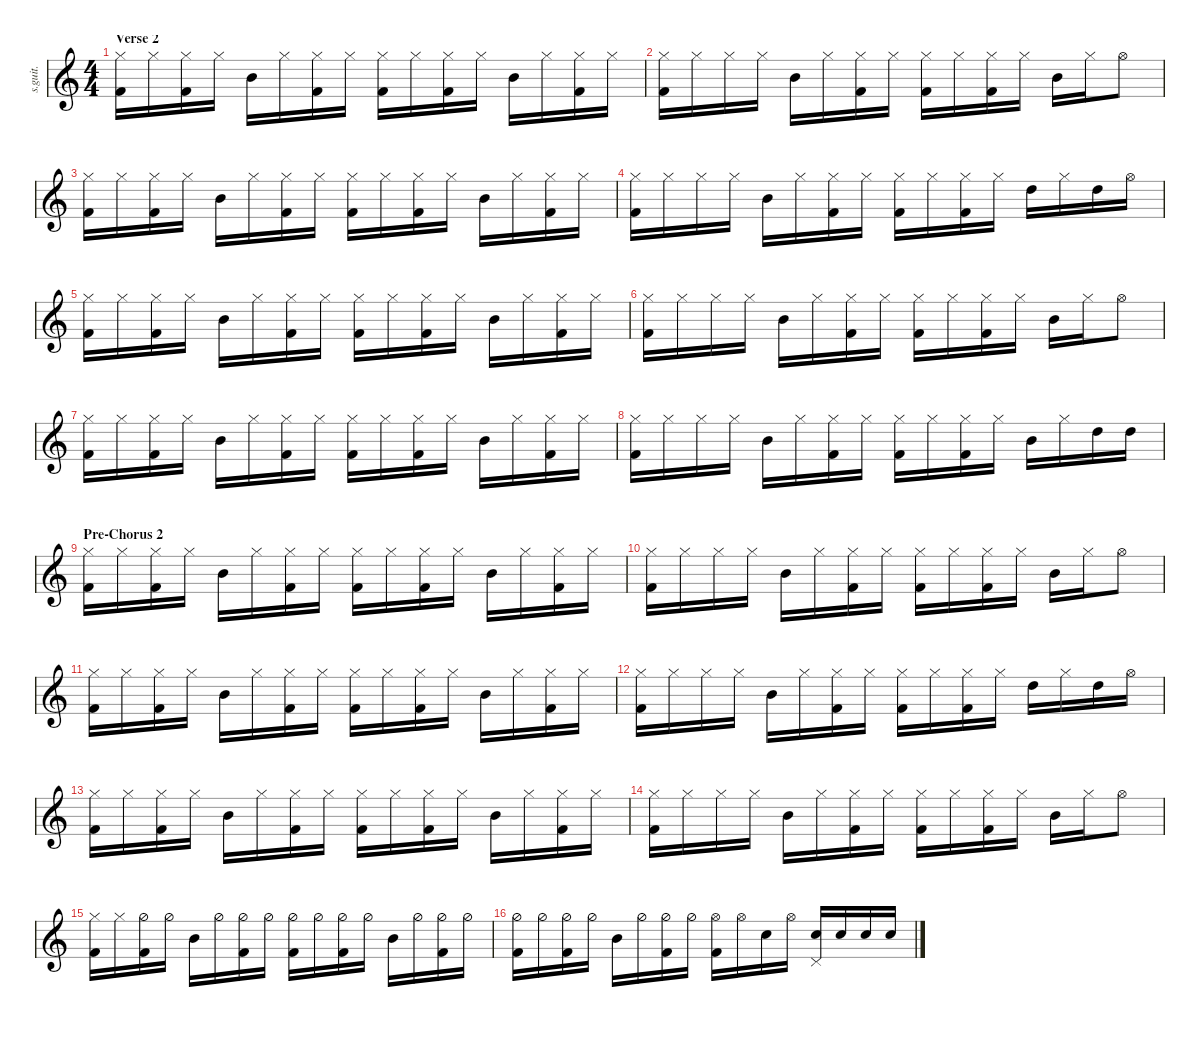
\defaultSystemsLayout 4
\hideDynamics
\bracketExtendMode nobrackets
\track ("Feargal Lawler (Drums)" "s.guit.") {instrument percussion}
\staff {score}
\articulation defaults
\ts (4 4)
\section ("" "Verse 2")
\tempo (82 hide)
\clef g2
\ks c
("Kick (hit) 2" "Hi-Hat (closed)").16{lyrics (0 "") lyrics (1 "") lyrics (2 "") lyrics (3 "") lyrics (4 "") dy ff} "Hi-Hat (closed)".16{lyrics (0 "") lyrics (1 "") lyrics (2 "") lyrics (3 "") lyrics (4 "")} ("Hi-Hat (closed)" "Kick (hit) 2").16{lyrics (0 "") lyrics (1 "") lyrics (2 "") lyrics (3 "") lyrics (4 "")} "Hi-Hat (closed)".16{lyrics (0 "") lyrics (1 "") lyrics (2 "") lyrics (3 "") lyrics (4 "")} "Mid Tom (hit)".16{lyrics (0 "") lyrics (1 "") lyrics (2 "") lyrics (3 "") lyrics (4 "")} "Hi-Hat (closed)".16{lyrics (0 "") lyrics (1 "") lyrics (2 "") lyrics (3 "") lyrics (4 "")} ("Hi-Hat (closed)" "Kick (hit) 2").16{lyrics (0 "") lyrics (1 "") lyrics (2 "") lyrics (3 "") lyrics (4 "")} "Hi-Hat (closed)".16{lyrics (0 "") lyrics (1 "") lyrics (2 "") lyrics (3 "") lyrics (4 "")} ("Hi-Hat (closed)" "Kick (hit) 2").16{lyrics (0 "") lyrics (1 "") lyrics (2 "") lyrics (3 "") lyrics (4 "")} "Hi-Hat (closed)".16{lyrics (0 "") lyrics (1 "") lyrics (2 "") lyrics (3 "") lyrics (4 "")} ("Hi-Hat (closed)" "Kick (hit) 2").16{lyrics (0 "") lyrics (1 "") lyrics (2 "") lyrics (3 "") lyrics (4 "")} "Hi-Hat (closed)".16{lyrics (0 "") lyrics (1 "") lyrics (2 "") lyrics (3 "") lyrics (4 "")} "Mid Tom (hit)".16{lyrics (0 "") lyrics (1 "") lyrics (2 "") lyrics (3 "") lyrics (4 "")} "Hi-Hat (closed)".16{lyrics (0 "") lyrics (1 "") lyrics (2 "") lyrics (3 "") lyrics (4 "")} ("Hi-Hat (closed)" "Kick (hit) 2").16{lyrics (0 "") lyrics (1 "") lyrics (2 "") lyrics (3 "") lyrics (4 "")} "Hi-Hat (closed)".16{lyrics (0 "") lyrics (1 "") lyrics (2 "") lyrics (3 "") lyrics (4 "")} |
("Hi-Hat (closed)" "Kick (hit) 2").16{lyrics (0 "") lyrics (1 "") lyrics (2 "") lyrics (3 "") lyrics (4 "")} "Hi-Hat (closed)".16{lyrics (0 "") lyrics (1 "") lyrics (2 "") lyrics (3 "") lyrics (4 "")} "Hi-Hat (closed)".16{lyrics (0 "") lyrics (1 "") lyrics (2 "") lyrics (3 "") lyrics (4 "")} "Hi-Hat (closed)".16{lyrics (0 "") lyrics (1 "") lyrics (2 "") lyrics (3 "") lyrics (4 "")} "Mid Tom (hit)".16{lyrics (0 "") lyrics (1 "") lyrics (2 "") lyrics (3 "") lyrics (4 "")} "Hi-Hat (closed)".16{lyrics (0 "") lyrics (1 "") lyrics (2 "") lyrics (3 "") lyrics (4 "")} ("Hi-Hat (closed)" "Kick (hit) 2").16{lyrics (0 "") lyrics (1 "") lyrics (2 "") lyrics (3 "") lyrics (4 "")} "Hi-Hat (closed)".16{lyrics (0 "") lyrics (1 "") lyrics (2 "") lyrics (3 "") lyrics (4 "")} ("Hi-Hat (closed)" "Kick (hit) 2").16{lyrics (0 "") lyrics (1 "") lyrics (2 "") lyrics (3 "") lyrics (4 "")} "Hi-Hat (closed)".16{lyrics (0 "") lyrics (1 "") lyrics (2 "") lyrics (3 "") lyrics (4 "")} ("Hi-Hat (closed)" "Kick (hit) 2").16{lyrics (0 "") lyrics (1 "") lyrics (2 "") lyrics (3 "") lyrics (4 "")} "Hi-Hat (closed)".16{lyrics (0 "") lyrics (1 "") lyrics (2 "") lyrics (3 "") lyrics (4 "")} "Mid Tom (hit)".16{lyrics (0 "") lyrics (1 "") lyrics (2 "") lyrics (3 "") lyrics (4 "")} "Hi-Hat (closed)".16{lyrics (0 "") lyrics (1 "") lyrics (2 "") lyrics (3 "") lyrics (4 "")} "Hi-Hat (open)".8{lyrics (0 "") lyrics (1 "") lyrics (2 "") lyrics (3 "") lyrics (4 "")} |
("Hi-Hat (closed)" "Kick (hit) 2").16{lyrics (0 "") lyrics (1 "") lyrics (2 "") lyrics (3 "") lyrics (4 "")} "Hi-Hat (closed)".16{lyrics (0 "") lyrics (1 "") lyrics (2 "") lyrics (3 "") lyrics (4 "")} ("Hi-Hat (closed)" "Kick (hit) 2").16{lyrics (0 "") lyrics (1 "") lyrics (2 "") lyrics (3 "") lyrics (4 "")} "Hi-Hat (closed)".16{lyrics (0 "") lyrics (1 "") lyrics (2 "") lyrics (3 "") lyrics (4 "")} "Mid Tom (hit)".16{lyrics (0 "") lyrics (1 "") lyrics (2 "") lyrics (3 "") lyrics (4 "")} "Hi-Hat (closed)".16{lyrics (0 "") lyrics (1 "") lyrics (2 "") lyrics (3 "") lyrics (4 "")} ("Hi-Hat (closed)" "Kick (hit) 2").16{lyrics (0 "") lyrics (1 "") lyrics (2 "") lyrics (3 "") lyrics (4 "")} "Hi-Hat (closed)".16{lyrics (0 "") lyrics (1 "") lyrics (2 "") lyrics (3 "") lyrics (4 "")} ("Hi-Hat (closed)" "Kick (hit) 2").16{lyrics (0 "") lyrics (1 "") lyrics (2 "") lyrics (3 "") lyrics (4 "")} "Hi-Hat (closed)".16{lyrics (0 "") lyrics (1 "") lyrics (2 "") lyrics (3 "") lyrics (4 "")} ("Hi-Hat (closed)" "Kick (hit) 2").16{lyrics (0 "") lyrics (1 "") lyrics (2 "") lyrics (3 "") lyrics (4 "")} "Hi-Hat (closed)".16{lyrics (0 "") lyrics (1 "") lyrics (2 "") lyrics (3 "") lyrics (4 "")} "Mid Tom (hit)".16{lyrics (0 "") lyrics (1 "") lyrics (2 "") lyrics (3 "") lyrics (4 "")} "Hi-Hat (closed)".16{lyrics (0 "") lyrics (1 "") lyrics (2 "") lyrics (3 "") lyrics (4 "")} ("Hi-Hat (closed)" "Kick (hit) 2").16{lyrics (0 "") lyrics (1 "") lyrics (2 "") lyrics (3 "") lyrics (4 "")} "Hi-Hat (closed)".16{lyrics (0 "") lyrics (1 "") lyrics (2 "") lyrics (3 "") lyrics (4 "")} |
("Hi-Hat (closed)" "Kick (hit) 2").16{lyrics (0 "") lyrics (1 "") lyrics (2 "") lyrics (3 "") lyrics (4 "")} "Hi-Hat (closed)".16{lyrics (0 "") lyrics (1 "") lyrics (2 "") lyrics (3 "") lyrics (4 "")} "Hi-Hat (closed)".16{lyrics (0 "") lyrics (1 "") lyrics (2 "") lyrics (3 "") lyrics (4 "")} "Hi-Hat (closed)".16{lyrics (0 "") lyrics (1 "") lyrics (2 "") lyrics (3 "") lyrics (4 "")} "Mid Tom (hit)".16{lyrics (0 "") lyrics (1 "") lyrics (2 "") lyrics (3 "") lyrics (4 "")} "Hi-Hat (closed)".16{lyrics (0 "") lyrics (1 "") lyrics (2 "") lyrics (3 "") lyrics (4 "")} ("Hi-Hat (closed)" "Kick (hit) 2").16{lyrics (0 "") lyrics (1 "") lyrics (2 "") lyrics (3 "") lyrics (4 "")} "Hi-Hat (closed)".16{lyrics (0 "") lyrics (1 "") lyrics (2 "") lyrics (3 "") lyrics (4 "")} ("Hi-Hat (closed)" "Kick (hit) 2").16{lyrics (0 "") lyrics (1 "") lyrics (2 "") lyrics (3 "") lyrics (4 "")} "Hi-Hat (closed)".16{lyrics (0 "") lyrics (1 "") lyrics (2 "") lyrics (3 "") lyrics (4 "")} ("Hi-Hat (closed)" "Kick (hit) 2").16{lyrics (0 "") lyrics (1 "") lyrics (2 "") lyrics (3 "") lyrics (4 "")} "Hi-Hat (closed)".16{lyrics (0 "") lyrics (1 "") lyrics (2 "") lyrics (3 "") lyrics (4 "")} "High Tom (hit)".16{lyrics (0 "") lyrics (1 "") lyrics (2 "") lyrics (3 "") lyrics (4 "")} "Hi-Hat (closed)".16{lyrics (0 "") lyrics (1 "") lyrics (2 "") lyrics (3 "") lyrics (4 "")} "High Tom (hit)".16{lyrics (0 "") lyrics (1 "") lyrics (2 "") lyrics (3 "") lyrics (4 "")} "Hi-Hat (open)".16{lyrics (0 "") lyrics (1 "") lyrics (2 "") lyrics (3 "") lyrics (4 "")} |
("Kick (hit) 2" "Hi-Hat (closed)").16{lyrics (0 "") lyrics (1 "") lyrics (2 "") lyrics (3 "") lyrics (4 "")} "Hi-Hat (closed)".16{lyrics (0 "") lyrics (1 "") lyrics (2 "") lyrics (3 "") lyrics (4 "")} ("Hi-Hat (closed)" "Kick (hit) 2").16{lyrics (0 "") lyrics (1 "") lyrics (2 "") lyrics (3 "") lyrics (4 "")} "Hi-Hat (closed)".16{lyrics (0 "") lyrics (1 "") lyrics (2 "") lyrics (3 "") lyrics (4 "")} "Mid Tom (hit)".16{lyrics (0 "") lyrics (1 "") lyrics (2 "") lyrics (3 "") lyrics (4 "")} "Hi-Hat (closed)".16{lyrics (0 "") lyrics (1 "") lyrics (2 "") lyrics (3 "") lyrics (4 "")} ("Hi-Hat (closed)" "Kick (hit) 2").16{lyrics (0 "") lyrics (1 "") lyrics (2 "") lyrics (3 "") lyrics (4 "")} "Hi-Hat (closed)".16{lyrics (0 "") lyrics (1 "") lyrics (2 "") lyrics (3 "") lyrics (4 "")} ("Hi-Hat (closed)" "Kick (hit) 2").16{lyrics (0 "") lyrics (1 "") lyrics (2 "") lyrics (3 "") lyrics (4 "")} "Hi-Hat (closed)".16{lyrics (0 "") lyrics (1 "") lyrics (2 "") lyrics (3 "") lyrics (4 "")} ("Hi-Hat (closed)" "Kick (hit) 2").16{lyrics (0 "") lyrics (1 "") lyrics (2 "") lyrics (3 "") lyrics (4 "")} "Hi-Hat (closed)".16{lyrics (0 "") lyrics (1 "") lyrics (2 "") lyrics (3 "") lyrics (4 "")} "Mid Tom (hit)".16{lyrics (0 "") lyrics (1 "") lyrics (2 "") lyrics (3 "") lyrics (4 "")} "Hi-Hat (closed)".16{lyrics (0 "") lyrics (1 "") lyrics (2 "") lyrics (3 "") lyrics (4 "")} ("Hi-Hat (closed)" "Kick (hit) 2").16{lyrics (0 "") lyrics (1 "") lyrics (2 "") lyrics (3 "") lyrics (4 "")} "Hi-Hat (closed)".16{lyrics (0 "") lyrics (1 "") lyrics (2 "") lyrics (3 "") lyrics (4 "")} |
("Hi-Hat (closed)" "Kick (hit) 2").16{lyrics (0 "") lyrics (1 "") lyrics (2 "") lyrics (3 "") lyrics (4 "")} "Hi-Hat (closed)".16{lyrics (0 "") lyrics (1 "") lyrics (2 "") lyrics (3 "") lyrics (4 "")} "Hi-Hat (closed)".16{lyrics (0 "") lyrics (1 "") lyrics (2 "") lyrics (3 "") lyrics (4 "")} "Hi-Hat (closed)".16{lyrics (0 "") lyrics (1 "") lyrics (2 "") lyrics (3 "") lyrics (4 "")} "Mid Tom (hit)".16{lyrics (0 "") lyrics (1 "") lyrics (2 "") lyrics (3 "") lyrics (4 "")} "Hi-Hat (closed)".16{lyrics (0 "") lyrics (1 "") lyrics (2 "") lyrics (3 "") lyrics (4 "")} ("Hi-Hat (closed)" "Kick (hit) 2").16{lyrics (0 "") lyrics (1 "") lyrics (2 "") lyrics (3 "") lyrics (4 "")} "Hi-Hat (closed)".16{lyrics (0 "") lyrics (1 "") lyrics (2 "") lyrics (3 "") lyrics (4 "")} ("Hi-Hat (closed)" "Kick (hit) 2").16{lyrics (0 "") lyrics (1 "") lyrics (2 "") lyrics (3 "") lyrics (4 "")} "Hi-Hat (closed)".16{lyrics (0 "") lyrics (1 "") lyrics (2 "") lyrics (3 "") lyrics (4 "")} ("Hi-Hat (closed)" "Kick (hit) 2").16{lyrics (0 "") lyrics (1 "") lyrics (2 "") lyrics (3 "") lyrics (4 "")} "Hi-Hat (closed)".16{lyrics (0 "") lyrics (1 "") lyrics (2 "") lyrics (3 "") lyrics (4 "")} "Mid Tom (hit)".16{lyrics (0 "") lyrics (1 "") lyrics (2 "") lyrics (3 "") lyrics (4 "")} "Hi-Hat (closed)".16{lyrics (0 "") lyrics (1 "") lyrics (2 "") lyrics (3 "") lyrics (4 "")} "Hi-Hat (open)".8{lyrics (0 "") lyrics (1 "") lyrics (2 "") lyrics (3 "") lyrics (4 "")} |
("Hi-Hat (closed)" "Kick (hit) 2").16{lyrics (0 "") lyrics (1 "") lyrics (2 "") lyrics (3 "") lyrics (4 "")} "Hi-Hat (closed)".16{lyrics (0 "") lyrics (1 "") lyrics (2 "") lyrics (3 "") lyrics (4 "")} ("Hi-Hat (closed)" "Kick (hit) 2").16{lyrics (0 "") lyrics (1 "") lyrics (2 "") lyrics (3 "") lyrics (4 "")} "Hi-Hat (closed)".16{lyrics (0 "") lyrics (1 "") lyrics (2 "") lyrics (3 "") lyrics (4 "")} "Mid Tom (hit)".16{lyrics (0 "") lyrics (1 "") lyrics (2 "") lyrics (3 "") lyrics (4 "")} "Hi-Hat (closed)".16{lyrics (0 "") lyrics (1 "") lyrics (2 "") lyrics (3 "") lyrics (4 "")} ("Hi-Hat (closed)" "Kick (hit) 2").16{lyrics (0 "") lyrics (1 "") lyrics (2 "") lyrics (3 "") lyrics (4 "")} "Hi-Hat (closed)".16{lyrics (0 "") lyrics (1 "") lyrics (2 "") lyrics (3 "") lyrics (4 "")} ("Hi-Hat (closed)" "Kick (hit) 2").16{lyrics (0 "") lyrics (1 "") lyrics (2 "") lyrics (3 "") lyrics (4 "")} "Hi-Hat (closed)".16{lyrics (0 "") lyrics (1 "") lyrics (2 "") lyrics (3 "") lyrics (4 "")} ("Hi-Hat (closed)" "Kick (hit) 2").16{lyrics (0 "") lyrics (1 "") lyrics (2 "") lyrics (3 "") lyrics (4 "")} "Hi-Hat (closed)".16{lyrics (0 "") lyrics (1 "") lyrics (2 "") lyrics (3 "") lyrics (4 "")} "Mid Tom (hit)".16{lyrics (0 "") lyrics (1 "") lyrics (2 "") lyrics (3 "") lyrics (4 "")} "Hi-Hat (closed)".16{lyrics (0 "") lyrics (1 "") lyrics (2 "") lyrics (3 "") lyrics (4 "")} ("Hi-Hat (closed)" "Kick (hit) 2").16{lyrics (0 "") lyrics (1 "") lyrics (2 "") lyrics (3 "") lyrics (4 "")} "Hi-Hat (closed)".16{lyrics (0 "") lyrics (1 "") lyrics (2 "") lyrics (3 "") lyrics (4 "")} |
("Hi-Hat (closed)" "Kick (hit) 2").16{lyrics (0 "") lyrics (1 "") lyrics (2 "") lyrics (3 "") lyrics (4 "")} "Hi-Hat (closed)".16{lyrics (0 "") lyrics (1 "") lyrics (2 "") lyrics (3 "") lyrics (4 "")} "Hi-Hat (closed)".16{lyrics (0 "") lyrics (1 "") lyrics (2 "") lyrics (3 "") lyrics (4 "")} "Hi-Hat (closed)".16{lyrics (0 "") lyrics (1 "") lyrics (2 "") lyrics (3 "") lyrics (4 "")} "Mid Tom (hit)".16{lyrics (0 "") lyrics (1 "") lyrics (2 "") lyrics (3 "") lyrics (4 "")} "Hi-Hat (closed)".16{lyrics (0 "") lyrics (1 "") lyrics (2 "") lyrics (3 "") lyrics (4 "")} ("Hi-Hat (closed)" "Kick (hit) 2").16{lyrics (0 "") lyrics (1 "") lyrics (2 "") lyrics (3 "") lyrics (4 "")} "Hi-Hat (closed)".16{lyrics (0 "") lyrics (1 "") lyrics (2 "") lyrics (3 "") lyrics (4 "")} ("Hi-Hat (closed)" "Kick (hit) 2").16{lyrics (0 "") lyrics (1 "") lyrics (2 "") lyrics (3 "") lyrics (4 "")} "Hi-Hat (closed)".16{lyrics (0 "") lyrics (1 "") lyrics (2 "") lyrics (3 "") lyrics (4 "")} ("Hi-Hat (closed)" "Kick (hit) 2").16{lyrics (0 "") lyrics (1 "") lyrics (2 "") lyrics (3 "") lyrics (4 "")} "Hi-Hat (closed)".16{lyrics (0 "") lyrics (1 "") lyrics (2 "") lyrics (3 "") lyrics (4 "")} "Mid Tom (hit)".16{lyrics (0 "") lyrics (1 "") lyrics (2 "") lyrics (3 "") lyrics (4 "")} "Hi-Hat (closed)".16{lyrics (0 "") lyrics (1 "") lyrics (2 "") lyrics (3 "") lyrics (4 "")} "High Tom (hit)".16{lyrics (0 "") lyrics (1 "") lyrics (2 "") lyrics (3 "") lyrics (4 "")} "High Tom (hit)".16{lyrics (0 "") lyrics (1 "") lyrics (2 "") lyrics (3 "") lyrics (4 "")} |
\section ("" "Pre-Chorus 2")
("Kick (hit) 2" "Hi-Hat (closed)").16{lyrics (0 "") lyrics (1 "") lyrics (2 "") lyrics (3 "") lyrics (4 "")} "Hi-Hat (closed)".16{lyrics (0 "") lyrics (1 "") lyrics (2 "") lyrics (3 "") lyrics (4 "")} ("Hi-Hat (closed)" "Kick (hit) 2").16{lyrics (0 "") lyrics (1 "") lyrics (2 "") lyrics (3 "") lyrics (4 "")} "Hi-Hat (closed)".16{lyrics (0 "") lyrics (1 "") lyrics (2 "") lyrics (3 "") lyrics (4 "")} "Mid Tom (hit)".16{lyrics (0 "") lyrics (1 "") lyrics (2 "") lyrics (3 "") lyrics (4 "")} "Hi-Hat (closed)".16{lyrics (0 "") lyrics (1 "") lyrics (2 "") lyrics (3 "") lyrics (4 "")} ("Kick (hit) 2" "Hi-Hat (closed)").16{lyrics (0 "") lyrics (1 "") lyrics (2 "") lyrics (3 "") lyrics (4 "")} "Hi-Hat (closed)".16{lyrics (0 "") lyrics (1 "") lyrics (2 "") lyrics (3 "") lyrics (4 "")} ("Kick (hit) 2" "Hi-Hat (closed)").16{lyrics (0 "") lyrics (1 "") lyrics (2 "") lyrics (3 "") lyrics (4 "")} "Hi-Hat (closed)".16{lyrics (0 "") lyrics (1 "") lyrics (2 "") lyrics (3 "") lyrics (4 "")} ("Kick (hit) 2" "Hi-Hat (closed)").16{lyrics (0 "") lyrics (1 "") lyrics (2 "") lyrics (3 "") lyrics (4 "")} "Hi-Hat (closed)".16{lyrics (0 "") lyrics (1 "") lyrics (2 "") lyrics (3 "") lyrics (4 "")} "Mid Tom (hit)".16{lyrics (0 "") lyrics (1 "") lyrics (2 "") lyrics (3 "") lyrics (4 "")} "Hi-Hat (closed)".16{lyrics (0 "") lyrics (1 "") lyrics (2 "") lyrics (3 "") lyrics (4 "")} ("Hi-Hat (closed)" "Kick (hit) 2").16{lyrics (0 "") lyrics (1 "") lyrics (2 "") lyrics (3 "") lyrics (4 "")} "Hi-Hat (closed)".16{lyrics (0 "") lyrics (1 "") lyrics (2 "") lyrics (3 "") lyrics (4 "")} |
("Hi-Hat (closed)" "Kick (hit) 2").16{lyrics (0 "") lyrics (1 "") lyrics (2 "") lyrics (3 "") lyrics (4 "")} "Hi-Hat (closed)".16{lyrics (0 "") lyrics (1 "") lyrics (2 "") lyrics (3 "") lyrics (4 "")} "Hi-Hat (closed)".16{lyrics (0 "") lyrics (1 "") lyrics (2 "") lyrics (3 "") lyrics (4 "")} "Hi-Hat (closed)".16{lyrics (0 "") lyrics (1 "") lyrics (2 "") lyrics (3 "") lyrics (4 "")} "Mid Tom (hit)".16{lyrics (0 "") lyrics (1 "") lyrics (2 "") lyrics (3 "") lyrics (4 "")} "Hi-Hat (closed)".16{lyrics (0 "") lyrics (1 "") lyrics (2 "") lyrics (3 "") lyrics (4 "")} ("Kick (hit) 2" "Hi-Hat (closed)").16{lyrics (0 "") lyrics (1 "") lyrics (2 "") lyrics (3 "") lyrics (4 "")} "Hi-Hat (closed)".16{lyrics (0 "") lyrics (1 "") lyrics (2 "") lyrics (3 "") lyrics (4 "")} ("Kick (hit) 2" "Hi-Hat (closed)").16{lyrics (0 "") lyrics (1 "") lyrics (2 "") lyrics (3 "") lyrics (4 "")} "Hi-Hat (closed)".16{lyrics (0 "") lyrics (1 "") lyrics (2 "") lyrics (3 "") lyrics (4 "")} ("Kick (hit) 2" "Hi-Hat (closed)").16{lyrics (0 "") lyrics (1 "") lyrics (2 "") lyrics (3 "") lyrics (4 "")} "Hi-Hat (closed)".16{lyrics (0 "") lyrics (1 "") lyrics (2 "") lyrics (3 "") lyrics (4 "")} "Mid Tom (hit)".16{lyrics (0 "") lyrics (1 "") lyrics (2 "") lyrics (3 "") lyrics (4 "")} "Hi-Hat (closed)".16{lyrics (0 "") lyrics (1 "") lyrics (2 "") lyrics (3 "") lyrics (4 "")} "Hi-Hat (open)".8{lyrics (0 "") lyrics (1 "") lyrics (2 "") lyrics (3 "") lyrics (4 "")} |
("Hi-Hat (closed)" "Kick (hit) 2").16{lyrics (0 "") lyrics (1 "") lyrics (2 "") lyrics (3 "") lyrics (4 "")} "Hi-Hat (closed)".16{lyrics (0 "") lyrics (1 "") lyrics (2 "") lyrics (3 "") lyrics (4 "")} ("Hi-Hat (closed)" "Kick (hit) 2").16{lyrics (0 "") lyrics (1 "") lyrics (2 "") lyrics (3 "") lyrics (4 "")} "Hi-Hat (closed)".16{lyrics (0 "") lyrics (1 "") lyrics (2 "") lyrics (3 "") lyrics (4 "")} "Mid Tom (hit)".16{lyrics (0 "") lyrics (1 "") lyrics (2 "") lyrics (3 "") lyrics (4 "")} "Hi-Hat (closed)".16{lyrics (0 "") lyrics (1 "") lyrics (2 "") lyrics (3 "") lyrics (4 "")} ("Kick (hit) 2" "Hi-Hat (closed)").16{lyrics (0 "") lyrics (1 "") lyrics (2 "") lyrics (3 "") lyrics (4 "")} "Hi-Hat (closed)".16{lyrics (0 "") lyrics (1 "") lyrics (2 "") lyrics (3 "") lyrics (4 "")} ("Kick (hit) 2" "Hi-Hat (closed)").16{lyrics (0 "") lyrics (1 "") lyrics (2 "") lyrics (3 "") lyrics (4 "")} "Hi-Hat (closed)".16{lyrics (0 "") lyrics (1 "") lyrics (2 "") lyrics (3 "") lyrics (4 "")} ("Kick (hit) 2" "Hi-Hat (closed)").16{lyrics (0 "") lyrics (1 "") lyrics (2 "") lyrics (3 "") lyrics (4 "")} "Hi-Hat (closed)".16{lyrics (0 "") lyrics (1 "") lyrics (2 "") lyrics (3 "") lyrics (4 "")} "Mid Tom (hit)".16{lyrics (0 "") lyrics (1 "") lyrics (2 "") lyrics (3 "") lyrics (4 "")} "Hi-Hat (closed)".16{lyrics (0 "") lyrics (1 "") lyrics (2 "") lyrics (3 "") lyrics (4 "")} ("Hi-Hat (closed)" "Kick (hit) 2").16{lyrics (0 "") lyrics (1 "") lyrics (2 "") lyrics (3 "") lyrics (4 "")} "Hi-Hat (closed)".16{lyrics (0 "") lyrics (1 "") lyrics (2 "") lyrics (3 "") lyrics (4 "")} |
("Hi-Hat (closed)" "Kick (hit) 2").16{lyrics (0 "") lyrics (1 "") lyrics (2 "") lyrics (3 "") lyrics (4 "")} "Hi-Hat (closed)".16{lyrics (0 "") lyrics (1 "") lyrics (2 "") lyrics (3 "") lyrics (4 "")} "Hi-Hat (closed)".16{lyrics (0 "") lyrics (1 "") lyrics (2 "") lyrics (3 "") lyrics (4 "")} "Hi-Hat (closed)".16{lyrics (0 "") lyrics (1 "") lyrics (2 "") lyrics (3 "") lyrics (4 "")} "Mid Tom (hit)".16{lyrics (0 "") lyrics (1 "") lyrics (2 "") lyrics (3 "") lyrics (4 "")} "Hi-Hat (closed)".16{lyrics (0 "") lyrics (1 "") lyrics (2 "") lyrics (3 "") lyrics (4 "")} ("Kick (hit) 2" "Hi-Hat (closed)").16{lyrics (0 "") lyrics (1 "") lyrics (2 "") lyrics (3 "") lyrics (4 "")} "Hi-Hat (closed)".16{lyrics (0 "") lyrics (1 "") lyrics (2 "") lyrics (3 "") lyrics (4 "")} ("Kick (hit) 2" "Hi-Hat (closed)").16{lyrics (0 "") lyrics (1 "") lyrics (2 "") lyrics (3 "") lyrics (4 "")} "Hi-Hat (closed)".16{lyrics (0 "") lyrics (1 "") lyrics (2 "") lyrics (3 "") lyrics (4 "")} ("Kick (hit) 2" "Hi-Hat (closed)").16{lyrics (0 "") lyrics (1 "") lyrics (2 "") lyrics (3 "") lyrics (4 "")} "Hi-Hat (closed)".16{lyrics (0 "") lyrics (1 "") lyrics (2 "") lyrics (3 "") lyrics (4 "")} "High Tom (hit)".16{lyrics (0 "") lyrics (1 "") lyrics (2 "") lyrics (3 "") lyrics (4 "")} "Hi-Hat (closed)".16{lyrics (0 "") lyrics (1 "") lyrics (2 "") lyrics (3 "") lyrics (4 "")} "High Tom (hit)".16{lyrics (0 "") lyrics (1 "") lyrics (2 "") lyrics (3 "") lyrics (4 "")} "Hi-Hat (open)".16{lyrics (0 "") lyrics (1 "") lyrics (2 "") lyrics (3 "") lyrics (4 "")} |
("Kick (hit) 2" "Hi-Hat (closed)").16{lyrics (0 "") lyrics (1 "") lyrics (2 "") lyrics (3 "") lyrics (4 "")} "Hi-Hat (closed)".16{lyrics (0 "") lyrics (1 "") lyrics (2 "") lyrics (3 "") lyrics (4 "")} ("Hi-Hat (closed)" "Kick (hit) 2").16{lyrics (0 "") lyrics (1 "") lyrics (2 "") lyrics (3 "") lyrics (4 "")} "Hi-Hat (closed)".16{lyrics (0 "") lyrics (1 "") lyrics (2 "") lyrics (3 "") lyrics (4 "")} "Mid Tom (hit)".16{lyrics (0 "") lyrics (1 "") lyrics (2 "") lyrics (3 "") lyrics (4 "")} "Hi-Hat (closed)".16{lyrics (0 "") lyrics (1 "") lyrics (2 "") lyrics (3 "") lyrics (4 "")} ("Kick (hit) 2" "Hi-Hat (closed)").16{lyrics (0 "") lyrics (1 "") lyrics (2 "") lyrics (3 "") lyrics (4 "")} "Hi-Hat (closed)".16{lyrics (0 "") lyrics (1 "") lyrics (2 "") lyrics (3 "") lyrics (4 "")} ("Kick (hit) 2" "Hi-Hat (closed)").16{lyrics (0 "") lyrics (1 "") lyrics (2 "") lyrics (3 "") lyrics (4 "")} "Hi-Hat (closed)".16{lyrics (0 "") lyrics (1 "") lyrics (2 "") lyrics (3 "") lyrics (4 "")} ("Kick (hit) 2" "Hi-Hat (closed)").16{lyrics (0 "") lyrics (1 "") lyrics (2 "") lyrics (3 "") lyrics (4 "")} "Hi-Hat (closed)".16{lyrics (0 "") lyrics (1 "") lyrics (2 "") lyrics (3 "") lyrics (4 "")} "Mid Tom (hit)".16{lyrics (0 "") lyrics (1 "") lyrics (2 "") lyrics (3 "") lyrics (4 "")} "Hi-Hat (closed)".16{lyrics (0 "") lyrics (1 "") lyrics (2 "") lyrics (3 "") lyrics (4 "")} ("Hi-Hat (closed)" "Kick (hit) 2").16{lyrics (0 "") lyrics (1 "") lyrics (2 "") lyrics (3 "") lyrics (4 "")} "Hi-Hat (closed)".16{lyrics (0 "") lyrics (1 "") lyrics (2 "") lyrics (3 "") lyrics (4 "")} |
("Hi-Hat (closed)" "Kick (hit) 2").16{lyrics (0 "") lyrics (1 "") lyrics (2 "") lyrics (3 "") lyrics (4 "")} "Hi-Hat (closed)".16{lyrics (0 "") lyrics (1 "") lyrics (2 "") lyrics (3 "") lyrics (4 "")} "Hi-Hat (closed)".16{lyrics (0 "") lyrics (1 "") lyrics (2 "") lyrics (3 "") lyrics (4 "")} "Hi-Hat (closed)".16{lyrics (0 "") lyrics (1 "") lyrics (2 "") lyrics (3 "") lyrics (4 "")} "Mid Tom (hit)".16{lyrics (0 "") lyrics (1 "") lyrics (2 "") lyrics (3 "") lyrics (4 "")} "Hi-Hat (closed)".16{lyrics (0 "") lyrics (1 "") lyrics (2 "") lyrics (3 "") lyrics (4 "")} ("Kick (hit) 2" "Hi-Hat (closed)").16{lyrics (0 "") lyrics (1 "") lyrics (2 "") lyrics (3 "") lyrics (4 "")} "Hi-Hat (closed)".16{lyrics (0 "") lyrics (1 "") lyrics (2 "") lyrics (3 "") lyrics (4 "")} ("Kick (hit) 2" "Hi-Hat (closed)").16{lyrics (0 "") lyrics (1 "") lyrics (2 "") lyrics (3 "") lyrics (4 "")} "Hi-Hat (closed)".16{lyrics (0 "") lyrics (1 "") lyrics (2 "") lyrics (3 "") lyrics (4 "")} ("Kick (hit) 2" "Hi-Hat (closed)").16{lyrics (0 "") lyrics (1 "") lyrics (2 "") lyrics (3 "") lyrics (4 "")} "Hi-Hat (closed)".16{lyrics (0 "") lyrics (1 "") lyrics (2 "") lyrics (3 "") lyrics (4 "")} "Mid Tom (hit)".16{lyrics (0 "") lyrics (1 "") lyrics (2 "") lyrics (3 "") lyrics (4 "")} "Hi-Hat (closed)".16{lyrics (0 "") lyrics (1 "") lyrics (2 "") lyrics (3 "") lyrics (4 "")} "Hi-Hat (open)".8{lyrics (0 "") lyrics (1 "") lyrics (2 "") lyrics (3 "") lyrics (4 "")} |
("Hi-Hat (closed)" "Kick (hit) 2").16{lyrics (0 "") lyrics (1 "") lyrics (2 "") lyrics (3 "") lyrics (4 "")} "Hi-Hat (closed)".16{lyrics (0 "") lyrics (1 "") lyrics (2 "") lyrics (3 "") lyrics (4 "")} ("Hi-Hat (half)" "Kick (hit) 2").16{lyrics (0 "") lyrics (1 "") lyrics (2 "") lyrics (3 "") lyrics (4 "")} "Hi-Hat (half)".16{lyrics (0 "") lyrics (1 "") lyrics (2 "") lyrics (3 "") lyrics (4 "")} "Mid Tom (hit)".16{lyrics (0 "") lyrics (1 "") lyrics (2 "") lyrics (3 "") lyrics (4 "")} "Hi-Hat (half)".16{lyrics (0 "") lyrics (1 "") lyrics (2 "") lyrics (3 "") lyrics (4 "")} ("Hi-Hat (half)" "Kick (hit) 2").16{lyrics (0 "") lyrics (1 "") lyrics (2 "") lyrics (3 "") lyrics (4 "")} "Hi-Hat (half)".16{lyrics (0 "") lyrics (1 "") lyrics (2 "") lyrics (3 "") lyrics (4 "")} ("Hi-Hat (half)" "Kick (hit) 2").16{lyrics (0 "") lyrics (1 "") lyrics (2 "") lyrics (3 "") lyrics (4 "")} "Hi-Hat (half)".16{lyrics (0 "") lyrics (1 "") lyrics (2 "") lyrics (3 "") lyrics (4 "")} ("Hi-Hat (half)" "Kick (hit) 2").16{lyrics (0 "") lyrics (1 "") lyrics (2 "") lyrics (3 "") lyrics (4 "")} "Hi-Hat (half)".16{lyrics (0 "") lyrics (1 "") lyrics (2 "") lyrics (3 "") lyrics (4 "")} "Mid Tom (hit)".16{lyrics (0 "") lyrics (1 "") lyrics (2 "") lyrics (3 "") lyrics (4 "")} "Hi-Hat (half)".16{lyrics (0 "") lyrics (1 "") lyrics (2 "") lyrics (3 "") lyrics (4 "")} ("Hi-Hat (half)" "Kick (hit) 2").16{lyrics (0 "") lyrics (1 "") lyrics (2 "") lyrics (3 "") lyrics (4 "")} "Hi-Hat (half)".16{lyrics (0 "") lyrics (1 "") lyrics (2 "") lyrics (3 "") lyrics (4 "")} |
("Hi-Hat (half)" "Kick (hit) 2").16{lyrics (0 "") lyrics (1 "") lyrics (2 "") lyrics (3 "") lyrics (4 "")} "Hi-Hat (half)".16{lyrics (0 "") lyrics (1 "") lyrics (2 "") lyrics (3 "") lyrics (4 "")} ("Hi-Hat (half)" "Kick (hit) 2").16{lyrics (0 "") lyrics (1 "") lyrics (2 "") lyrics (3 "") lyrics (4 "")} "Hi-Hat (half)".16{lyrics (0 "") lyrics (1 "") lyrics (2 "") lyrics (3 "") lyrics (4 "")} "Mid Tom (hit)".16{lyrics (0 "") lyrics (1 "") lyrics (2 "") lyrics (3 "") lyrics (4 "")} "Hi-Hat (half)".16{lyrics (0 "") lyrics (1 "") lyrics (2 "") lyrics (3 "") lyrics (4 "")} ("Hi-Hat (half)" "Kick (hit) 2").16{lyrics (0 "") lyrics (1 "") lyrics (2 "") lyrics (3 "") lyrics (4 "")} "Hi-Hat (half)".16{lyrics (0 "") lyrics (1 "") lyrics (2 "") lyrics (3 "") lyrics (4 "")} ("Hi-Hat (open)" "Kick (hit) 2").16{lyrics (0 "") lyrics (1 "") lyrics (2 "") lyrics (3 "") lyrics (4 "")} "Hi-Hat (open)".16{lyrics (0 "") lyrics (1 "") lyrics (2 "") lyrics (3 "") lyrics (4 "")} "Snare (hit) 2".16{lyrics (0 "") lyrics (1 "") lyrics (2 "") lyrics (3 "") lyrics (4 "")} "Hi-Hat (open)".16{lyrics (0 "") lyrics (1 "") lyrics (2 "") lyrics (3 "") lyrics (4 "")} ("Pedal Hi-Hat (hit)" "Snare (hit) 2").16{lyrics (0 "") lyrics (1 "") lyrics (2 "") lyrics (3 "") lyrics (4 "")} "Snare (hit) 2".16{lyrics (0 "") lyrics (1 "") lyrics (2 "") lyrics (3 "") lyrics (4 "")} "Snare (hit) 2".16{lyrics (0 "") lyrics (1 "") lyrics (2 "") lyrics (3 "") lyrics (4 "")} "Snare (hit) 2".16{lyrics (0 "") lyrics (1 "") lyrics (2 "") lyrics (3 "") lyrics (4 "")}
